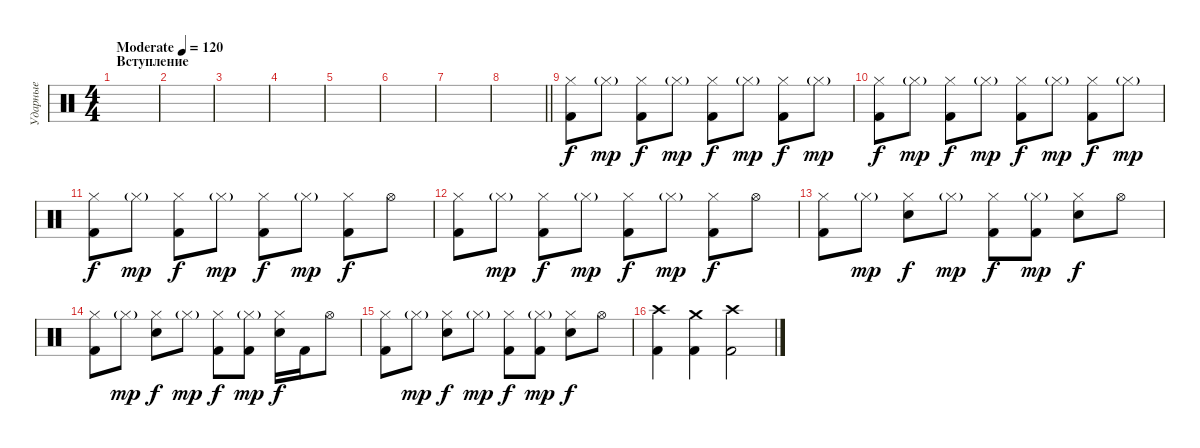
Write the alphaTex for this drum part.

\track ("Ударные" "Ударные") {instrument percussion}
\staff {score}
\articulation defaults
\ts (4 4)
\section ("" "Вступление")
\tempo (120 "Moderate")
\clef neutral
\ks c
|
|
|
|
|
|
|
\barLineRight lightlight
|
\section ("" "")
("Hi-Hat (closed)" "Kick (hit) 2").8 "Hi-Hat (closed)"{g}.8{dy mp} ("Hi-Hat (closed)" "Kick (hit) 2").8{dy f} "Hi-Hat (closed)"{g}.8{dy mp} ("Hi-Hat (closed)" "Kick (hit) 2").8{dy f} "Hi-Hat (closed)"{g}.8{dy mp} ("Hi-Hat (closed)" "Kick (hit) 2").8{dy f} "Hi-Hat (closed)"{g}.8{dy mp} |
("Hi-Hat (closed)" "Kick (hit) 2").8{dy f} "Hi-Hat (closed)"{g}.8{dy mp} ("Hi-Hat (closed)" "Kick (hit) 2").8{dy f} "Hi-Hat (closed)"{g}.8{dy mp} ("Hi-Hat (closed)" "Kick (hit) 2").8{dy f} "Hi-Hat (closed)"{g}.8{dy mp} ("Hi-Hat (closed)" "Kick (hit) 2").8{dy f} "Hi-Hat (closed)"{g}.8{dy mp} |
("Hi-Hat (closed)" "Kick (hit) 2").8{dy f} "Hi-Hat (closed)"{g}.8{dy mp} ("Hi-Hat (closed)" "Kick (hit) 2").8{dy f} "Hi-Hat (closed)"{g}.8{dy mp} ("Hi-Hat (closed)" "Kick (hit) 2").8{dy f} "Hi-Hat (closed)"{g}.8{dy mp} ("Hi-Hat (closed)" "Kick (hit) 2").8{dy f} "Hi-Hat (open)".8 |
("Hi-Hat (closed)" "Kick (hit) 2").8 "Hi-Hat (closed)"{g}.8{dy mp} ("Hi-Hat (closed)" "Kick (hit) 2").8{dy f} "Hi-Hat (closed)"{g}.8{dy mp} ("Hi-Hat (closed)" "Kick (hit) 2").8{dy f} "Hi-Hat (closed)"{g}.8{dy mp} ("Hi-Hat (closed)" "Kick (hit) 2").8{dy f} "Hi-Hat (open)".8 |
("Hi-Hat (closed)" "Kick (hit) 2").8 "Hi-Hat (closed)"{g}.8{dy mp} ("Hi-Hat (closed)" "Electric Snare (hit)").8{dy f} "Hi-Hat (closed)"{g}.8{dy mp} ("Hi-Hat (closed)" "Kick (hit) 2").8{dy f} ("Hi-Hat (closed)"{g} "Kick (hit) 2").8{dy mp} ("Hi-Hat (closed)" "Electric Snare (hit)").8{dy f} "Hi-Hat (open)".8 |
("Hi-Hat (closed)" "Kick (hit) 2").8 "Hi-Hat (closed)"{g}.8{dy mp} ("Hi-Hat (closed)" "Electric Snare (hit)").8{dy f} "Hi-Hat (closed)"{g}.8{dy mp} ("Hi-Hat (closed)" "Kick (hit) 2").8{dy f} ("Hi-Hat (closed)"{g} "Kick (hit) 2").8{dy mp} ("Hi-Hat (closed)" "Electric Snare (hit)").16{dy f} "Kick (hit) 2".16 "Hi-Hat (open)".8 |
("Hi-Hat (closed)" "Kick (hit) 2").8 "Hi-Hat (closed)"{g}.8{dy mp} ("Hi-Hat (closed)" "Electric Snare (hit)").8{dy f} "Hi-Hat (closed)"{g}.8{dy mp} ("Hi-Hat (closed)" "Kick (hit) 2").8{dy f} ("Hi-Hat (closed)"{g} "Kick (hit) 2").8{dy mp} ("Hi-Hat (closed)" "Electric Snare (hit)").8{dy f} "Hi-Hat (open)".8 |
("Crash high (hit)" "Kick (hit) 2").4 ("Crash medium (hit)" "Kick (hit) 2").4 ("Crash high (hit)" "Kick (hit) 2").2
